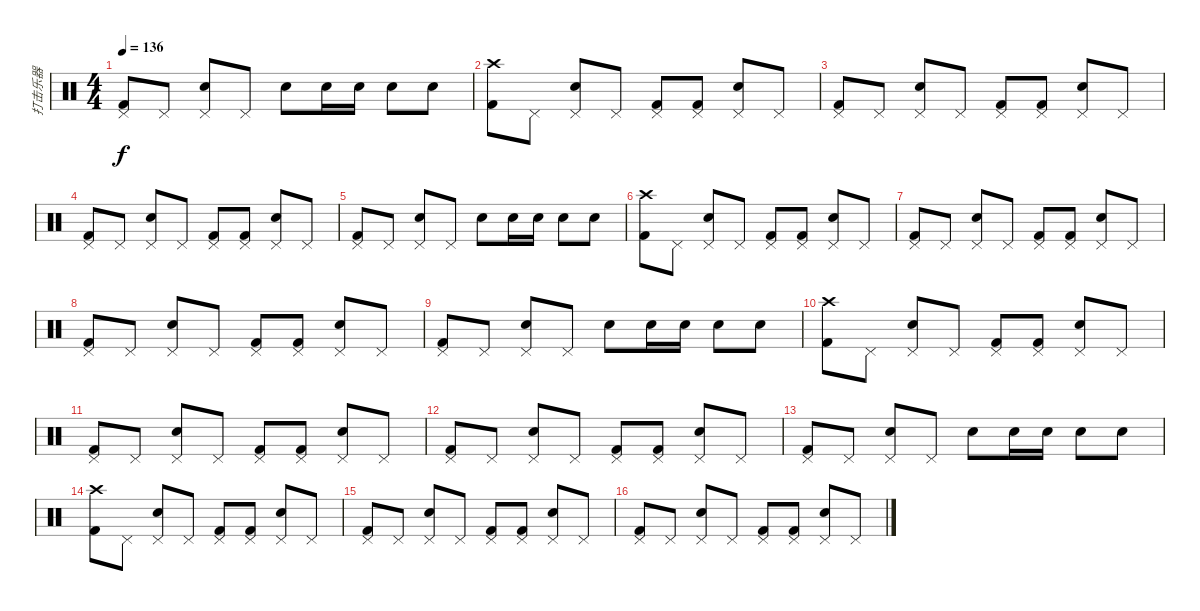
\track ("打击乐器" "打击乐器") {instrument percussion}
\staff {score}
\articulation defaults
\ts (4 4)
\tempo 136
\clef neutral
\ks c
("Pedal Hi-Hat (hit)" "Kick (hit) 2").8{dy f} "Pedal Hi-Hat (hit)".8 ("Pedal Hi-Hat (hit)" "Snare (hit) 2").8 "Pedal Hi-Hat (hit)".8 "Snare (hit) 2".8 "Snare (hit) 2".16 "Snare (hit) 2".16 "Snare (hit) 2".8 "Snare (hit) 2".8 |
("Crash high (hit)" "Kick (hit) 2").8 "Pedal Hi-Hat (hit)".8 ("Pedal Hi-Hat (hit)" "Snare (hit) 2").8 "Pedal Hi-Hat (hit)".8 ("Pedal Hi-Hat (hit)" "Kick (hit) 2").8 ("Pedal Hi-Hat (hit)" "Kick (hit) 2").8 ("Pedal Hi-Hat (hit)" "Snare (hit) 2").8 "Pedal Hi-Hat (hit)".8 |
("Pedal Hi-Hat (hit)" "Kick (hit) 2").8 "Pedal Hi-Hat (hit)".8 ("Pedal Hi-Hat (hit)" "Snare (hit) 2").8 "Pedal Hi-Hat (hit)".8 ("Pedal Hi-Hat (hit)" "Kick (hit) 2").8 ("Pedal Hi-Hat (hit)" "Kick (hit) 2").8 ("Pedal Hi-Hat (hit)" "Snare (hit) 2").8 "Pedal Hi-Hat (hit)".8 |
("Pedal Hi-Hat (hit)" "Kick (hit) 2").8 "Pedal Hi-Hat (hit)".8 ("Pedal Hi-Hat (hit)" "Snare (hit) 2").8 "Pedal Hi-Hat (hit)".8 ("Pedal Hi-Hat (hit)" "Kick (hit) 2").8 ("Pedal Hi-Hat (hit)" "Kick (hit) 2").8 ("Pedal Hi-Hat (hit)" "Snare (hit) 2").8 "Pedal Hi-Hat (hit)".8 |
("Pedal Hi-Hat (hit)" "Kick (hit) 2").8 "Pedal Hi-Hat (hit)".8 ("Pedal Hi-Hat (hit)" "Snare (hit) 2").8 "Pedal Hi-Hat (hit)".8 "Snare (hit) 2".8 "Snare (hit) 2".16 "Snare (hit) 2".16 "Snare (hit) 2".8 "Snare (hit) 2".8 |
("Crash high (hit)" "Kick (hit) 2").8 "Pedal Hi-Hat (hit)".8 ("Pedal Hi-Hat (hit)" "Snare (hit) 2").8 "Pedal Hi-Hat (hit)".8 ("Pedal Hi-Hat (hit)" "Kick (hit) 2").8 ("Pedal Hi-Hat (hit)" "Kick (hit) 2").8 ("Pedal Hi-Hat (hit)" "Snare (hit) 2").8 "Pedal Hi-Hat (hit)".8 |
("Pedal Hi-Hat (hit)" "Kick (hit) 2").8 "Pedal Hi-Hat (hit)".8 ("Pedal Hi-Hat (hit)" "Snare (hit) 2").8 "Pedal Hi-Hat (hit)".8 ("Pedal Hi-Hat (hit)" "Kick (hit) 2").8 ("Pedal Hi-Hat (hit)" "Kick (hit) 2").8 ("Pedal Hi-Hat (hit)" "Snare (hit) 2").8 "Pedal Hi-Hat (hit)".8 |
("Pedal Hi-Hat (hit)" "Kick (hit) 2").8 "Pedal Hi-Hat (hit)".8 ("Pedal Hi-Hat (hit)" "Snare (hit) 2").8 "Pedal Hi-Hat (hit)".8 ("Pedal Hi-Hat (hit)" "Kick (hit) 2").8 ("Pedal Hi-Hat (hit)" "Kick (hit) 2").8 ("Pedal Hi-Hat (hit)" "Snare (hit) 2").8 "Pedal Hi-Hat (hit)".8 |
("Pedal Hi-Hat (hit)" "Kick (hit) 2").8 "Pedal Hi-Hat (hit)".8 ("Pedal Hi-Hat (hit)" "Snare (hit) 2").8 "Pedal Hi-Hat (hit)".8 "Snare (hit) 2".8 "Snare (hit) 2".16 "Snare (hit) 2".16 "Snare (hit) 2".8 "Snare (hit) 2".8 |
("Crash high (hit)" "Kick (hit) 2").8 "Pedal Hi-Hat (hit)".8 ("Pedal Hi-Hat (hit)" "Snare (hit) 2").8 "Pedal Hi-Hat (hit)".8 ("Pedal Hi-Hat (hit)" "Kick (hit) 2").8 ("Pedal Hi-Hat (hit)" "Kick (hit) 2").8 ("Pedal Hi-Hat (hit)" "Snare (hit) 2").8 "Pedal Hi-Hat (hit)".8 |
("Pedal Hi-Hat (hit)" "Kick (hit) 2").8 "Pedal Hi-Hat (hit)".8 ("Pedal Hi-Hat (hit)" "Snare (hit) 2").8 "Pedal Hi-Hat (hit)".8 ("Pedal Hi-Hat (hit)" "Kick (hit) 2").8 ("Pedal Hi-Hat (hit)" "Kick (hit) 2").8 ("Pedal Hi-Hat (hit)" "Snare (hit) 2").8 "Pedal Hi-Hat (hit)".8 |
("Pedal Hi-Hat (hit)" "Kick (hit) 2").8 "Pedal Hi-Hat (hit)".8 ("Pedal Hi-Hat (hit)" "Snare (hit) 2").8 "Pedal Hi-Hat (hit)".8 ("Pedal Hi-Hat (hit)" "Kick (hit) 2").8 ("Pedal Hi-Hat (hit)" "Kick (hit) 2").8 ("Pedal Hi-Hat (hit)" "Snare (hit) 2").8 "Pedal Hi-Hat (hit)".8 |
("Pedal Hi-Hat (hit)" "Kick (hit) 2").8 "Pedal Hi-Hat (hit)".8 ("Pedal Hi-Hat (hit)" "Snare (hit) 2").8 "Pedal Hi-Hat (hit)".8 "Snare (hit) 2".8 "Snare (hit) 2".16 "Snare (hit) 2".16 "Snare (hit) 2".8 "Snare (hit) 2".8 |
("Crash high (hit)" "Kick (hit) 2").8 "Pedal Hi-Hat (hit)".8 ("Pedal Hi-Hat (hit)" "Snare (hit) 2").8 "Pedal Hi-Hat (hit)".8 ("Pedal Hi-Hat (hit)" "Kick (hit) 2").8 ("Pedal Hi-Hat (hit)" "Kick (hit) 2").8 ("Pedal Hi-Hat (hit)" "Snare (hit) 2").8 "Pedal Hi-Hat (hit)".8 |
("Pedal Hi-Hat (hit)" "Kick (hit) 2").8 "Pedal Hi-Hat (hit)".8 ("Pedal Hi-Hat (hit)" "Snare (hit) 2").8 "Pedal Hi-Hat (hit)".8 ("Pedal Hi-Hat (hit)" "Kick (hit) 2").8 ("Pedal Hi-Hat (hit)" "Kick (hit) 2").8 ("Pedal Hi-Hat (hit)" "Snare (hit) 2").8 "Pedal Hi-Hat (hit)".8 |
("Pedal Hi-Hat (hit)" "Kick (hit) 2").8 "Pedal Hi-Hat (hit)".8 ("Pedal Hi-Hat (hit)" "Snare (hit) 2").8 "Pedal Hi-Hat (hit)".8 ("Pedal Hi-Hat (hit)" "Kick (hit) 2").8 ("Pedal Hi-Hat (hit)" "Kick (hit) 2").8 ("Pedal Hi-Hat (hit)" "Snare (hit) 2").8 "Pedal Hi-Hat (hit)".8
